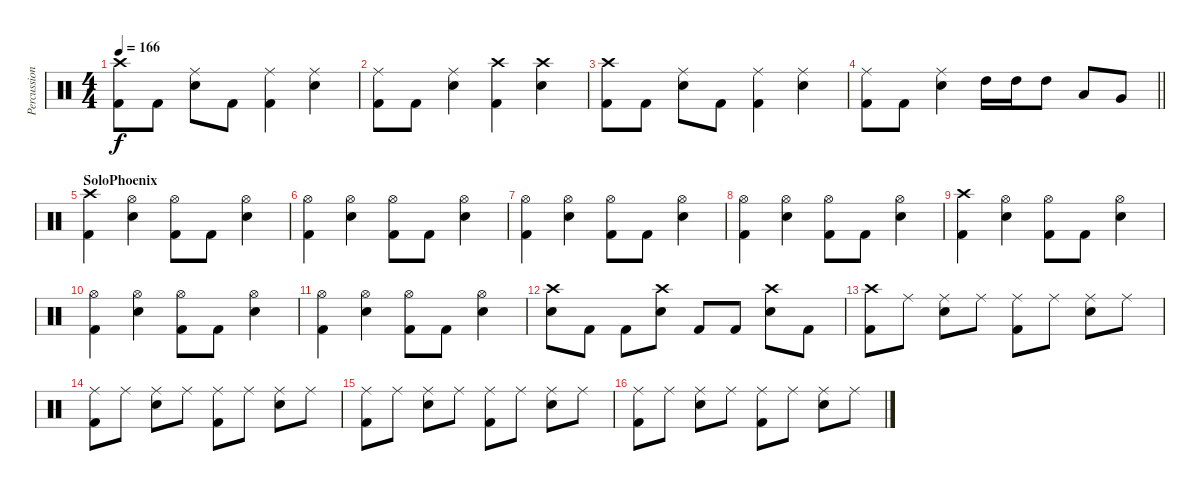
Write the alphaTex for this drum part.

\track ("Percussion" "Percussion") {solo instrument percussion}
\staff {score}
\articulation defaults
\ts (4 4)
\tempo 166
\clef neutral
\ks aminor
("Crash high (hit)" "Kick (hit) 2").8{dy f} "Kick (hit) 2".8 ("Snare (hit) 2" "Ride (middle)").8 "Kick (hit) 2".8 ("Ride (middle)" "Kick (hit) 2").4 ("Snare (hit) 2" "Ride (middle)").4 |
("Ride (middle)" "Kick (hit) 2").8 "Kick (hit) 2".8 ("Snare (hit) 2" "Ride (middle)").4 ("Crash high (hit)" "Kick (hit) 2").4 ("Snare (hit) 2" "Crash high (hit)").4 |
("Crash high (hit)" "Kick (hit) 2").8 "Kick (hit) 2".8 ("Snare (hit) 2" "Ride (middle)").8 "Kick (hit) 2".8 ("Ride (middle)" "Kick (hit) 2").4 ("Snare (hit) 2" "Ride (middle)").4 |
\barLineRight lightlight
("Ride (middle)" "Kick (hit) 2").8 "Kick (hit) 2".8 ("Snare (hit) 2" "Ride (middle)").4 "High Tom (hit)".16 "High Tom (hit)".16 "High Tom (hit)".8 "Low Tom (hit)".8 "Very Low Tom (hit)".8 |
\section ("" "SoloPhoenix")
\ks c
("Crash high (hit)" "Kick (hit) 2").4 ("Hi-Hat (open)" "Snare (hit) 2").4 ("Hi-Hat (open)" "Kick (hit) 2").8 "Kick (hit) 2".8 ("Hi-Hat (open)" "Snare (hit) 2").4 |
("Hi-Hat (open)" "Kick (hit) 2").4 ("Hi-Hat (open)" "Snare (hit) 2").4 ("Hi-Hat (open)" "Kick (hit) 2").8 "Kick (hit) 2".8 ("Hi-Hat (open)" "Snare (hit) 2").4 |
("Hi-Hat (open)" "Kick (hit) 2").4 ("Hi-Hat (open)" "Snare (hit) 2").4 ("Hi-Hat (open)" "Kick (hit) 2").8 "Kick (hit) 2".8 ("Hi-Hat (open)" "Snare (hit) 2").4 |
("Hi-Hat (open)" "Kick (hit) 2").4 ("Hi-Hat (open)" "Snare (hit) 2").4 ("Hi-Hat (open)" "Kick (hit) 2").8 "Kick (hit) 2".8 ("Hi-Hat (open)" "Snare (hit) 2").4 |
("Crash high (hit)" "Kick (hit) 2").4 ("Hi-Hat (open)" "Snare (hit) 2").4 ("Hi-Hat (open)" "Kick (hit) 2").8 "Kick (hit) 2".8 ("Hi-Hat (open)" "Snare (hit) 2").4 |
("Hi-Hat (open)" "Kick (hit) 2").4 ("Hi-Hat (open)" "Snare (hit) 2").4 ("Hi-Hat (open)" "Kick (hit) 2").8 "Kick (hit) 2".8 ("Hi-Hat (open)" "Snare (hit) 2").4 |
("Hi-Hat (open)" "Kick (hit) 2").4 ("Hi-Hat (open)" "Snare (hit) 2").4 ("Hi-Hat (open)" "Kick (hit) 2").8 "Kick (hit) 2".8 ("Hi-Hat (open)" "Snare (hit) 2").4 |
("Crash high (hit)" "Snare (hit) 2").8 "Kick (hit) 2".8 "Kick (hit) 2".8 ("Crash high (hit)" "Snare (hit) 2").8 "Kick (hit) 2".8 "Kick (hit) 2".8 ("Crash high (hit)" "Snare (hit) 2").8 "Kick (hit) 2".8 |
("Crash high (hit)" "Kick (hit) 2").8 "Ride (middle)".8 ("Ride (middle)" "Snare (hit) 2").8 "Ride (middle)".8 ("Ride (middle)" "Kick (hit) 2").8 "Ride (middle)".8 ("Ride (middle)" "Snare (hit) 2").8 "Ride (middle)".8 |
("Ride (middle)" "Kick (hit) 2").8 "Ride (middle)".8 ("Ride (middle)" "Snare (hit) 2").8 "Ride (middle)".8 ("Ride (middle)" "Kick (hit) 2").8 "Ride (middle)".8 ("Ride (middle)" "Snare (hit) 2").8 "Ride (middle)".8 |
\ks aminor
("Ride (middle)" "Kick (hit) 2").8 "Ride (middle)".8 ("Ride (middle)" "Snare (hit) 2").8 "Ride (middle)".8 ("Ride (middle)" "Kick (hit) 2").8 "Ride (middle)".8 ("Ride (middle)" "Snare (hit) 2").8 "Ride (middle)".8 |
("Ride (middle)" "Kick (hit) 2").8 "Ride (middle)".8 ("Ride (middle)" "Snare (hit) 2").8 "Ride (middle)".8 ("Ride (middle)" "Kick (hit) 2").8 "Ride (middle)".8 ("Ride (middle)" "Snare (hit) 2").8 "Ride (middle)".8
